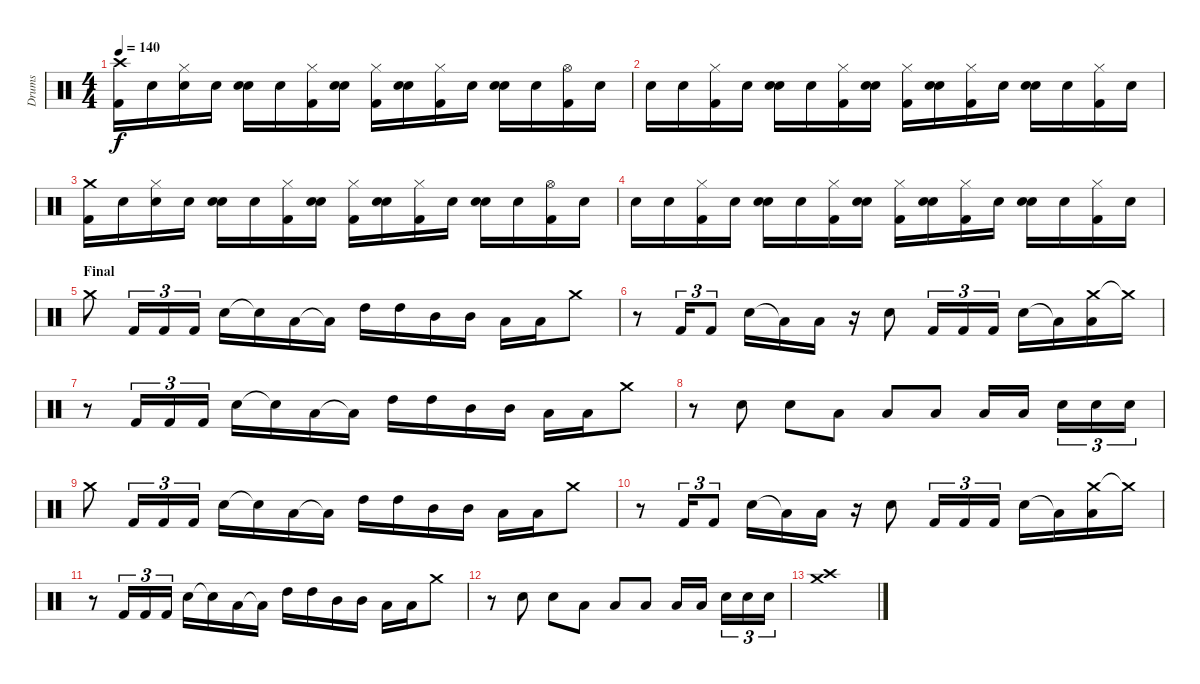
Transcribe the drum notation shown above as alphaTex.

\track ("Drums" "Drums") {instrument percussion}
\staff {score}
\articulation defaults
\ts (4 4)
\tempo 140
\clef neutral
\ks c
("Kick (hit) 2" "Crash high (hit)").16{dy f} "Snare (hit)".16 ("Snare (hit)" "Hi-Hat (closed)").16 "Snare (hit)".16 ("Snare (hit)" "Electric Snare (hit)").16 "Snare (hit)".16 ("Kick (hit) 2" "Hi-Hat (closed)").16 ("Snare (hit)" "Electric Snare (hit)").16 ("Kick (hit) 2" "Hi-Hat (closed)").16 ("Snare (hit)" "Electric Snare (hit)").16 ("Kick (hit) 2" "Hi-Hat (closed)").16 "Snare (hit)".16 ("Snare (hit)" "Electric Snare (hit)").16 "Snare (hit)".16 ("Kick (hit) 2" "Hi-Hat (open)").16 "Snare (hit)".16 |
"Snare (hit)".16 "Snare (hit)".16 ("Kick (hit) 2" "Hi-Hat (closed)").16 "Snare (hit)".16 ("Snare (hit)" "Electric Snare (hit)").16 "Snare (hit)".16 ("Kick (hit) 2" "Hi-Hat (closed)").16 ("Snare (hit)" "Electric Snare (hit)").16 ("Kick (hit) 2" "Hi-Hat (closed)").16 ("Snare (hit)" "Electric Snare (hit)").16 ("Kick (hit) 2" "Hi-Hat (closed)").16 "Snare (hit)".16 ("Snare (hit)" "Electric Snare (hit)").16 "Snare (hit)".16 ("Kick (hit) 2" "Hi-Hat (closed)").16 "Snare (hit)".16 |
("Kick (hit) 2" "Crash medium (hit)").16 "Snare (hit)".16 ("Snare (hit)" "Hi-Hat (closed)").16 "Snare (hit)".16 ("Snare (hit)" "Electric Snare (hit)").16 "Snare (hit)".16 ("Kick (hit) 2" "Hi-Hat (closed)").16 ("Snare (hit)" "Electric Snare (hit)").16 ("Kick (hit) 2" "Hi-Hat (closed)").16 ("Snare (hit)" "Electric Snare (hit)").16 ("Kick (hit) 2" "Hi-Hat (closed)").16 "Snare (hit)".16 ("Snare (hit)" "Electric Snare (hit)").16 "Snare (hit)".16 ("Kick (hit) 2" "Hi-Hat (open)").16 "Snare (hit)".16 |
"Snare (hit)".16 "Snare (hit)".16 ("Kick (hit) 2" "Hi-Hat (closed)").16 "Snare (hit)".16 ("Snare (hit)" "Electric Snare (hit)").16 "Snare (hit)".16 ("Kick (hit) 2" "Hi-Hat (closed)").16 ("Snare (hit)" "Electric Snare (hit)").16 ("Kick (hit) 2" "Hi-Hat (closed)").16 ("Snare (hit)" "Electric Snare (hit)").16 ("Kick (hit) 2" "Hi-Hat (closed)").16 "Snare (hit)".16 ("Snare (hit)" "Electric Snare (hit)").16 "Snare (hit)".16 ("Kick (hit) 2" "Hi-Hat (closed)").16 "Snare (hit)".16 |
\section ("" "Final")
"Crash medium (hit)".8 "Kick (hit) 2".16{tu (3 2)} "Kick (hit) 2".16{tu (3 2)} "Kick (hit) 2".16{tu (3 2)} "Electric Snare (hit)".16 "Electric Snare (hit)"{t}.16 "Low Tom (hit)".16 "Low Tom (hit)"{t}.16 "High Tom (hit)".16 "High Tom (hit)".16 "Mid Tom (hit)".16 "Mid Tom (hit)".16 "Low Tom (hit)".16 "Low Tom (hit)".16 "Crash medium (hit)".8 |
r.8 "Kick (hit) 2".16{tu (3 2)} "Kick (hit) 2".8{tu (3 2)} "Electric Snare (hit)".16 "Low Tom (hit)"{t}.16 "Low Tom (hit)".16 r.16 "Electric Snare (hit)".8 "Kick (hit) 2".16{tu (3 2)} "Kick (hit) 2".16{tu (3 2)} "Kick (hit) 2".16{tu (3 2)} "Electric Snare (hit)".16 "Low Tom (hit)"{t}.16 ("Crash medium (hit)" "Low Tom (hit)").16 "Crash medium (hit)"{t}.16 |
r.8 "Kick (hit) 2".16{tu (3 2)} "Kick (hit) 2".16{tu (3 2)} "Kick (hit) 2".16{tu (3 2)} "Electric Snare (hit)".16 "Electric Snare (hit)"{t}.16 "Low Tom (hit)".16 "Low Tom (hit)"{t}.16 "High Tom (hit)".16 "High Tom (hit)".16 "Mid Tom (hit)".16 "Mid Tom (hit)".16 "Low Tom (hit)".16 "Low Tom (hit)".16 "Crash medium (hit)".8 |
r.8 "Electric Snare (hit)".8 "Electric Snare (hit)".8 "Low Tom (hit)".8 "Low Tom (hit)".8 "Low Tom (hit)".8 "Low Tom (hit)".16 "Low Tom (hit)".16 "Electric Snare (hit)".16{tu (3 2)} "Electric Snare (hit)".16{tu (3 2)} "Electric Snare (hit)".16{tu (3 2)} |
"Crash medium (hit)".8 "Kick (hit) 2".16{tu (3 2)} "Kick (hit) 2".16{tu (3 2)} "Kick (hit) 2".16{tu (3 2)} "Electric Snare (hit)".16 "Electric Snare (hit)"{t}.16 "Low Tom (hit)".16 "Low Tom (hit)"{t}.16 "High Tom (hit)".16 "High Tom (hit)".16 "Mid Tom (hit)".16 "Mid Tom (hit)".16 "Low Tom (hit)".16 "Low Tom (hit)".16 "Crash medium (hit)".8 |
r.8 "Kick (hit) 2".16{tu (3 2)} "Kick (hit) 2".8{tu (3 2)} "Electric Snare (hit)".16 "Low Tom (hit)"{t}.16 "Low Tom (hit)".16 r.16 "Electric Snare (hit)".8 "Kick (hit) 2".16{tu (3 2)} "Kick (hit) 2".16{tu (3 2)} "Kick (hit) 2".16{tu (3 2)} "Electric Snare (hit)".16 "Low Tom (hit)"{t}.16 ("Crash medium (hit)" "Low Tom (hit)").16 "Crash medium (hit)"{t}.16 |
r.8 "Kick (hit) 2".16{tu (3 2)} "Kick (hit) 2".16{tu (3 2)} "Kick (hit) 2".16{tu (3 2)} "Electric Snare (hit)".16 "Electric Snare (hit)"{t}.16 "Low Tom (hit)".16 "Low Tom (hit)"{t}.16 "High Tom (hit)".16 "High Tom (hit)".16 "Mid Tom (hit)".16 "Mid Tom (hit)".16 "Low Tom (hit)".16 "Low Tom (hit)".16 "Crash medium (hit)".8 |
r.8 "Electric Snare (hit)".8 "Electric Snare (hit)".8 "Low Tom (hit)".8 "Low Tom (hit)".8 "Low Tom (hit)".8 "Low Tom (hit)".16 "Low Tom (hit)".16 "Electric Snare (hit)".16{tu (3 2)} "Electric Snare (hit)".16{tu (3 2)} "Electric Snare (hit)".16{tu (3 2)} |
("Crash high (hit)" "Crash medium (hit)").1
